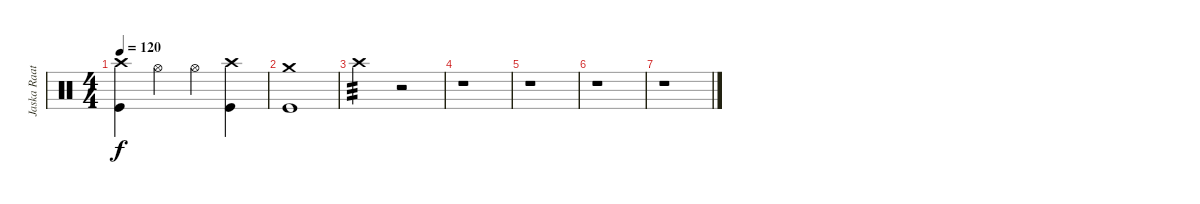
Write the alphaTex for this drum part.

\track ("Jaska Raatikainen" "Jaska Raat") {instrument percussion}
\staff {score}
\articulation defaults
\ts (4 4)
\tempo 120
\clef neutral
\ks c
("Crash high (hit)" "Kick (hit)").4{dy f} "Hi-Hat (open)".4 "Hi-Hat (open)".4 ("Crash high (hit)" "Kick (hit)").4 |
("Crash medium (hit)" "Kick (hit)").1 |
"Crash high (hit)".2{tp 3} r.2 |
r.1 |
r.1 |
r.1 |
r.1
